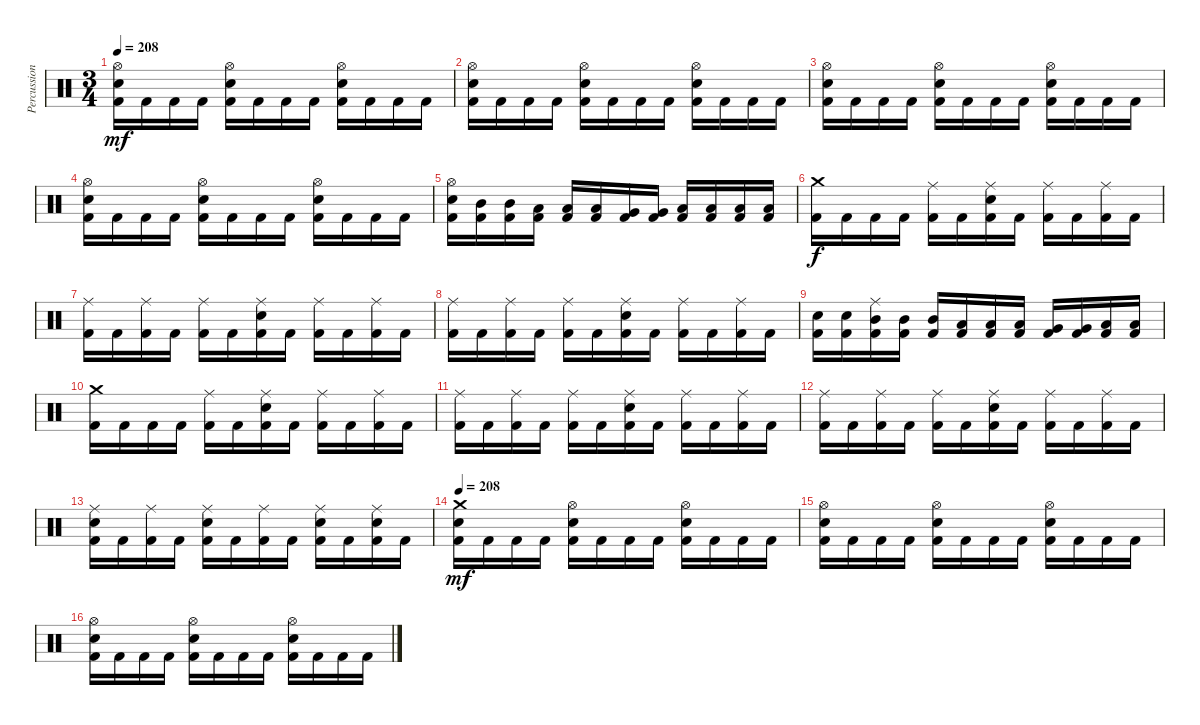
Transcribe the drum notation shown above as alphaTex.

\track ("Percussion" "Percussion") {instrument percussion}
\staff {score}
\articulation defaults
\ts (3 4)
\tempo 208
\clef neutral
\ks c
("Hi-Hat (open)" "Electric Snare (hit)" "Kick (hit) 2").16{dy mf} "Kick (hit) 2".16 "Kick (hit) 2".16 "Kick (hit) 2".16 ("Hi-Hat (open)" "Electric Snare (hit)" "Kick (hit) 2").16 "Kick (hit) 2".16 "Kick (hit) 2".16 "Kick (hit) 2".16 ("Hi-Hat (open)" "Electric Snare (hit)" "Kick (hit) 2").16 "Kick (hit) 2".16 "Kick (hit) 2".16 "Kick (hit) 2".16 |
("Hi-Hat (open)" "Electric Snare (hit)" "Kick (hit) 2").16 "Kick (hit) 2".16 "Kick (hit) 2".16 "Kick (hit) 2".16 ("Hi-Hat (open)" "Electric Snare (hit)" "Kick (hit) 2").16 "Kick (hit) 2".16 "Kick (hit) 2".16 "Kick (hit) 2".16 ("Hi-Hat (open)" "Electric Snare (hit)" "Kick (hit) 2").16 "Kick (hit) 2".16 "Kick (hit) 2".16 "Kick (hit) 2".16 |
("Hi-Hat (open)" "Electric Snare (hit)" "Kick (hit) 2").16 "Kick (hit) 2".16 "Kick (hit) 2".16 "Kick (hit) 2".16 ("Hi-Hat (open)" "Electric Snare (hit)" "Kick (hit) 2").16 "Kick (hit) 2".16 "Kick (hit) 2".16 "Kick (hit) 2".16 ("Hi-Hat (open)" "Electric Snare (hit)" "Kick (hit) 2").16 "Kick (hit) 2".16 "Kick (hit) 2".16 "Kick (hit) 2".16 |
("Hi-Hat (open)" "Electric Snare (hit)" "Kick (hit) 2").16 "Kick (hit) 2".16 "Kick (hit) 2".16 "Kick (hit) 2".16 ("Hi-Hat (open)" "Electric Snare (hit)" "Kick (hit) 2").16 "Kick (hit) 2".16 "Kick (hit) 2".16 "Kick (hit) 2".16 ("Hi-Hat (open)" "Electric Snare (hit)" "Kick (hit) 2").16 "Kick (hit) 2".16 "Kick (hit) 2".16 "Kick (hit) 2".16 |
("Hi-Hat (open)" "Electric Snare (hit)" "Kick (hit) 2").16 ("Mid Tom (hit)" "Kick (hit) 2").16 ("Mid Tom (hit)" "Kick (hit) 2").16 ("Low Tom (hit)" "Kick (hit) 2").16 ("Low Tom (hit)" "Kick (hit) 2").16 ("Low Tom (hit)" "Kick (hit) 2").16 ("Very Low Tom (hit)" "Kick (hit) 2").16 ("Very Low Tom (hit)" "Kick (hit) 2").16 ("Low Floor Tom (hit)" "Kick (hit) 2").16 ("Low Floor Tom (hit)" "Kick (hit) 2").16 ("Low Floor Tom (hit)" "Kick (hit) 2").16 ("Low Floor Tom (hit)" "Kick (hit) 2").16 |
("Crash medium (hit)" "Kick (hit) 2").16{dy f} "Kick (hit) 2".16 "Kick (hit) 2".16 "Kick (hit) 2".16 ("Ride (middle)" "Kick (hit) 2").16 "Kick (hit) 2".16 ("Ride (middle)" "Electric Snare (hit)" "Kick (hit) 2").16 "Kick (hit) 2".16 ("Ride (middle)" "Kick (hit) 2").16 "Kick (hit) 2".16 ("Ride (middle)" "Kick (hit) 2").16 "Kick (hit) 2".16 |
("Ride (middle)" "Kick (hit) 2").16 "Kick (hit) 2".16 ("Ride (middle)" "Kick (hit) 2").16 "Kick (hit) 2".16 ("Ride (middle)" "Kick (hit) 2").16 "Kick (hit) 2".16 ("Ride (middle)" "Electric Snare (hit)" "Kick (hit) 2").16 "Kick (hit) 2".16 ("Ride (middle)" "Kick (hit) 2").16 "Kick (hit) 2".16 ("Ride (middle)" "Kick (hit) 2").16 "Kick (hit) 2".16 |
("Ride (middle)" "Kick (hit) 2").16 "Kick (hit) 2".16 ("Ride (middle)" "Kick (hit) 2").16 "Kick (hit) 2".16 ("Ride (middle)" "Kick (hit) 2").16 "Kick (hit) 2".16 ("Ride (middle)" "Electric Snare (hit)" "Kick (hit) 2").16 "Kick (hit) 2".16 ("Ride (middle)" "Kick (hit) 2").16 "Kick (hit) 2".16 ("Ride (middle)" "Kick (hit) 2").16 "Kick (hit) 2".16 |
("Electric Snare (hit)" "Kick (hit) 2").16 ("Electric Snare (hit)" "Kick (hit) 2").16 ("Ride (middle)" "Mid Tom (hit)" "Kick (hit) 2").16 ("Mid Tom (hit)" "Kick (hit) 2").16 ("Mid Tom (hit)" "Kick (hit) 2").16 ("Low Tom (hit)" "Kick (hit) 2").16 ("Low Tom (hit)" "Kick (hit) 2").16 ("Low Tom (hit)" "Kick (hit) 2").16 ("Very Low Tom (hit)" "Kick (hit) 2").16 ("Very Low Tom (hit)" "Kick (hit) 2").16 ("Low Floor Tom (hit)" "Kick (hit) 2").16 ("Low Floor Tom (hit)" "Kick (hit) 2").16 |
("Crash medium (hit)" "Kick (hit) 2").16 "Kick (hit) 2".16 "Kick (hit) 2".16 "Kick (hit) 2".16 ("Ride (middle)" "Kick (hit) 2").16 "Kick (hit) 2".16 ("Ride (middle)" "Electric Snare (hit)" "Kick (hit) 2").16 "Kick (hit) 2".16 ("Ride (middle)" "Kick (hit) 2").16 "Kick (hit) 2".16 ("Ride (middle)" "Kick (hit) 2").16 "Kick (hit) 2".16 |
("Ride (middle)" "Kick (hit) 2").16 "Kick (hit) 2".16 ("Ride (middle)" "Kick (hit) 2").16 "Kick (hit) 2".16 ("Ride (middle)" "Kick (hit) 2").16 "Kick (hit) 2".16 ("Ride (middle)" "Electric Snare (hit)" "Kick (hit) 2").16 "Kick (hit) 2".16 ("Ride (middle)" "Kick (hit) 2").16 "Kick (hit) 2".16 ("Ride (middle)" "Kick (hit) 2").16 "Kick (hit) 2".16 |
("Ride (middle)" "Kick (hit) 2").16 "Kick (hit) 2".16 ("Ride (middle)" "Kick (hit) 2").16 "Kick (hit) 2".16 ("Ride (middle)" "Kick (hit) 2").16 "Kick (hit) 2".16 ("Ride (middle)" "Electric Snare (hit)" "Kick (hit) 2").16 "Kick (hit) 2".16 ("Ride (middle)" "Kick (hit) 2").16 "Kick (hit) 2".16 ("Ride (middle)" "Kick (hit) 2").16 "Kick (hit) 2".16 |
("Ride (middle)" "Electric Snare (hit)" "Kick (hit) 2").16 "Kick (hit) 2".16 ("Ride (middle)" "Kick (hit) 2").16 "Kick (hit) 2".16 ("Ride (middle)" "Electric Snare (hit)" "Kick (hit) 2").16 "Kick (hit) 2".16 ("Ride (middle)" "Kick (hit) 2").16 "Kick (hit) 2".16 ("Ride (middle)" "Electric Snare (hit)" "Kick (hit) 2").16 "Kick (hit) 2".16 ("Ride (middle)" "Electric Snare (hit)" "Kick (hit) 2").16 "Kick (hit) 2".16 |
\tempo 208
("Crash medium (hit)" "Electric Snare (hit)" "Kick (hit) 2").16{dy mf} "Kick (hit) 2".16 "Kick (hit) 2".16 "Kick (hit) 2".16 ("Hi-Hat (open)" "Electric Snare (hit)" "Kick (hit) 2").16 "Kick (hit) 2".16 "Kick (hit) 2".16 "Kick (hit) 2".16 ("Hi-Hat (open)" "Electric Snare (hit)" "Kick (hit) 2").16 "Kick (hit) 2".16 "Kick (hit) 2".16 "Kick (hit) 2".16 |
("Hi-Hat (open)" "Electric Snare (hit)" "Kick (hit) 2").16 "Kick (hit) 2".16 "Kick (hit) 2".16 "Kick (hit) 2".16 ("Hi-Hat (open)" "Electric Snare (hit)" "Kick (hit) 2").16 "Kick (hit) 2".16 "Kick (hit) 2".16 "Kick (hit) 2".16 ("Hi-Hat (open)" "Electric Snare (hit)" "Kick (hit) 2").16 "Kick (hit) 2".16 "Kick (hit) 2".16 "Kick (hit) 2".16 |
("Hi-Hat (open)" "Electric Snare (hit)" "Kick (hit) 2").16 "Kick (hit) 2".16 "Kick (hit) 2".16 "Kick (hit) 2".16 ("Hi-Hat (open)" "Electric Snare (hit)" "Kick (hit) 2").16 "Kick (hit) 2".16 "Kick (hit) 2".16 "Kick (hit) 2".16 ("Hi-Hat (open)" "Electric Snare (hit)" "Kick (hit) 2").16 "Kick (hit) 2".16 "Kick (hit) 2".16 "Kick (hit) 2".16
